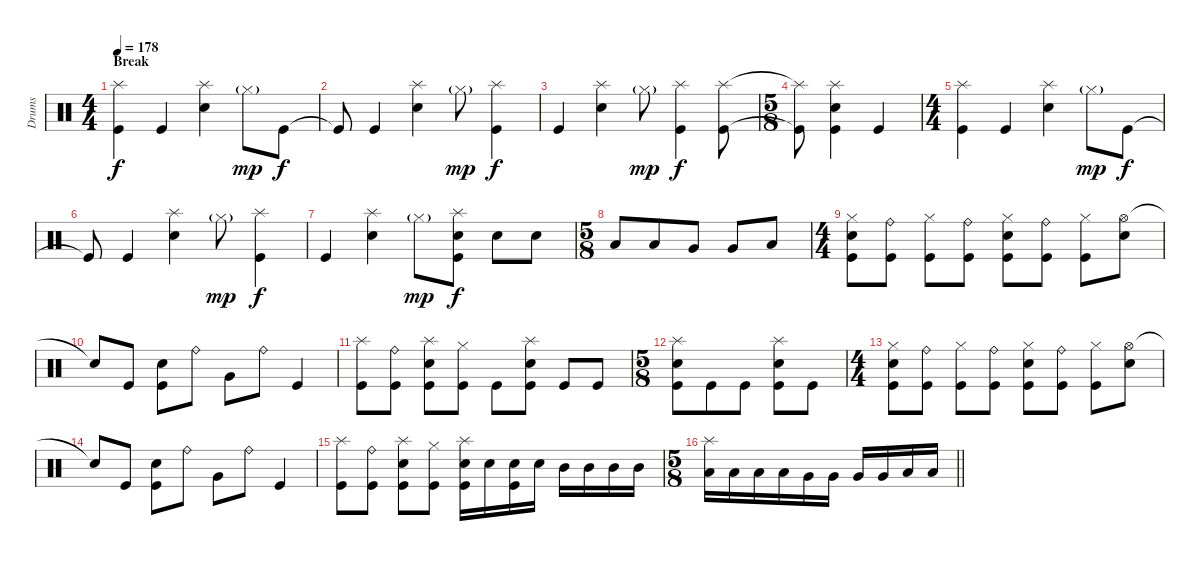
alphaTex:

\track ("Drums" "Drums") {instrument percussion}
\staff {score}
\articulation defaults
\ts (4 4)
\section ("" "Break")
\tempo 178
\clef neutral
\ks c
("Splash (hit)" "Kick (hit)").4{dy f} "Kick (hit)".4 ("Splash (hit)" "Snare (hit) 2").4 "Hi-Hat (closed)"{g}.8{dy mp} "Kick (hit)".8{dy f} |
"Kick (hit)"{t}.8 "Kick (hit)".4 ("Splash (hit)" "Snare (hit) 2").4 "Hi-Hat (closed)"{g}.8{dy mp} ("Splash (hit)" "Kick (hit)").4{dy f} |
"Kick (hit)".4 ("Splash (hit)" "Snare (hit) 2").4 "Hi-Hat (closed)"{g}.8{dy mp} ("Splash (hit)" "Kick (hit)").4{dy f} ("Splash (hit)" "Kick (hit)").8 |
\ts (5 8)
("Splash (hit)"{t} "Kick (hit)"{t}).8 ("Splash (hit)" "Snare (hit) 2" "Kick (hit)").4 "Kick (hit)".4 |
\ts (4 4)
("Splash (hit)" "Kick (hit)").4 "Kick (hit)".4 ("Splash (hit)" "Snare (hit) 2").4 "Hi-Hat (closed)"{g}.8{dy mp} "Kick (hit)".8{dy f} |
"Kick (hit)"{t}.8 "Kick (hit)".4 ("Splash (hit)" "Snare (hit) 2").4 "Hi-Hat (closed)"{g}.8{dy mp} ("Splash (hit)" "Kick (hit)").4{dy f} |
"Kick (hit)".4 ("Splash (hit)" "Snare (hit) 2").4 "Hi-Hat (closed)"{g}.8{dy mp} ("Splash (hit)" "Snare (hit) 2" "Kick (hit)").8{dy f} "Snare (hit) 2".8 "Snare (hit) 2".8 |
\ts (5 8)
"Low Tom (hit)".8 "Low Tom (hit)".8 "Very Low Tom (hit)".8 "Very Low Tom (hit)".8 "Low Floor Tom (hit)".8 |
\ts (4 4)
("Hi-Hat (closed)" "Snare (hit) 2" "Kick (hit)").8 ("Ride (bell)" "Kick (hit)").8 ("Hi-Hat (closed)" "Kick (hit)").8 ("Ride (bell)" "Kick (hit)").8 ("Hi-Hat (closed)" "Snare (hit) 2" "Kick (hit)").8 ("Ride (bell)" "Kick (hit)").8 ("Hi-Hat (closed)" "Kick (hit)").8 ("Hi-Hat (open)" "Snare (hit) 2").8 |
"Snare (hit) 2"{t}.8 "Kick (hit)".8 ("Snare (hit) 2" "Kick (hit)").8 "Ride (bell)".8 "Very Low Tom (hit)".8 "Ride (bell)".8 "Kick (hit)".4 |
("Splash (hit)" "Kick (hit)").8 ("Ride (bell)" "Kick (hit)").8 ("Splash (hit)" "Snare (hit) 2" "Kick (hit)").8 ("Hi-Hat (closed)" "Kick (hit)").8 "Kick (hit)".8 ("Splash (hit)" "Snare (hit) 2" "Kick (hit)").8 "Kick (hit)".8 "Kick (hit)".8 |
\ts (5 8)
("Splash (hit)" "Snare (hit) 2" "Kick (hit)").8 "Kick (hit)".8 "Kick (hit)".8 ("Splash (hit)" "Snare (hit) 2" "Kick (hit)").8 "Kick (hit)".8 |
\ts (4 4)
("Hi-Hat (closed)" "Snare (hit) 2" "Kick (hit)").8 ("Ride (bell)" "Kick (hit)").8 ("Hi-Hat (closed)" "Kick (hit)").8 ("Ride (bell)" "Kick (hit)").8 ("Hi-Hat (closed)" "Snare (hit) 2" "Kick (hit)").8 ("Ride (bell)" "Kick (hit)").8 ("Hi-Hat (closed)" "Kick (hit)").8 ("Hi-Hat (open)" "Snare (hit) 2").8 |
"Snare (hit) 2"{t}.8 "Kick (hit)".8 ("Snare (hit) 2" "Kick (hit)").8 "Ride (bell)".8 "Very Low Tom (hit)".8 "Ride (bell)".8 "Kick (hit)".4 |
("Splash (hit)" "Kick (hit)").8 ("Ride (bell)" "Kick (hit)").8 ("Splash (hit)" "Snare (hit) 2" "Kick (hit)").8 ("Hi-Hat (closed)" "Kick (hit)").8 ("Splash (hit)" "Snare (hit) 2" "Kick (hit)").16 "Snare (hit) 2".16 ("Snare (hit) 2" "Kick (hit)").16 "Snare (hit) 2".16 "Mid Tom (hit)".16 "Mid Tom (hit)".16 "Mid Tom (hit)".16 "Mid Tom (hit)".16 |
\ts (5 8)
\barLineRight lightlight
("Splash (hit)" "Low Tom (hit)").16 "Low Tom (hit)".16 "Low Tom (hit)".16 "Low Tom (hit)".16 "Very Low Tom (hit)".16 "Very Low Tom (hit)".16 "Very Low Tom (hit)".16 "Very Low Tom (hit)".16 "Low Floor Tom (hit)".16 "Low Floor Tom (hit)".16
